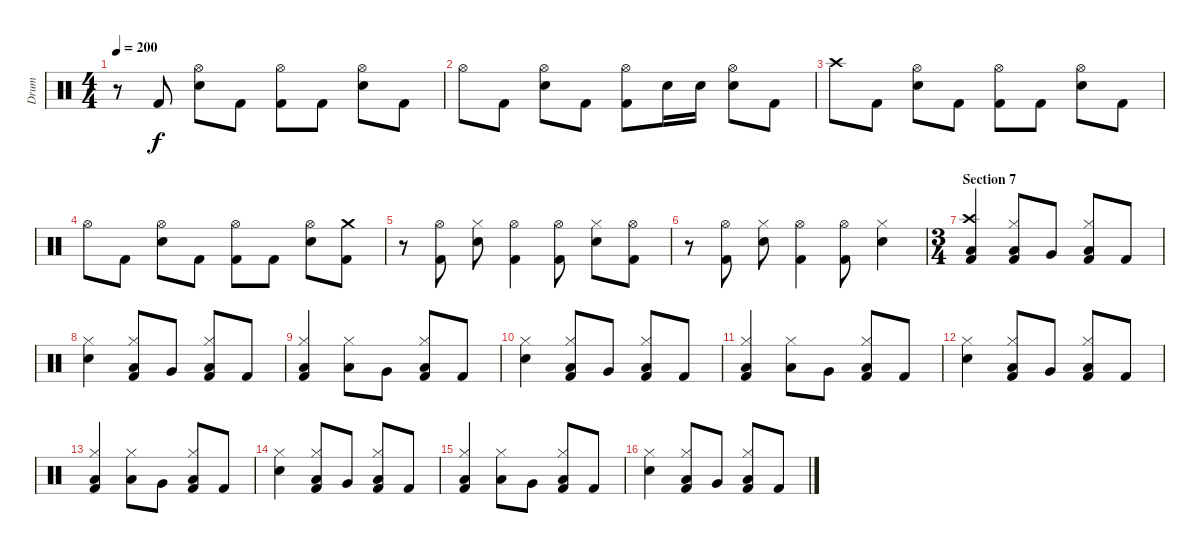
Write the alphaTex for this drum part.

\track ("Drum" "Drum") {instrument percussion}
\staff {score}
\articulation defaults
\ts (4 4)
\tempo 200
\clef neutral
\ks c
r.8{dy f} "Kick (hit) 2".8 ("Hi-Hat (open)" "Electric Snare (hit)").8 "Kick (hit) 2".8 ("Hi-Hat (open)" "Kick (hit) 2").8 "Kick (hit) 2".8 ("Hi-Hat (open)" "Electric Snare (hit)").8 "Kick (hit) 2".8 |
"Hi-Hat (open)".8 "Kick (hit) 2".8 ("Hi-Hat (open)" "Electric Snare (hit)").8 "Kick (hit) 2".8 ("Hi-Hat (open)" "Kick (hit) 2").8 "Electric Snare (hit)".16 "Electric Snare (hit)".16 ("Hi-Hat (open)" "Electric Snare (hit)").8 "Kick (hit) 2".8 |
"Crash high (hit)".8 "Kick (hit) 2".8 ("Hi-Hat (open)" "Electric Snare (hit)").8 "Kick (hit) 2".8 ("Hi-Hat (open)" "Kick (hit) 2").8 "Kick (hit) 2".8 ("Hi-Hat (open)" "Electric Snare (hit)").8 "Kick (hit) 2".8 |
"Hi-Hat (open)".8 "Kick (hit) 2".8 ("Hi-Hat (open)" "Electric Snare (hit)").8 "Kick (hit) 2".8 ("Hi-Hat (open)" "Kick (hit) 2").8 "Kick (hit) 2".8 ("Hi-Hat (open)" "Electric Snare (hit)").8 ("Crash medium (hit)" "Kick (hit) 2").8 |
r.8 ("Hi-Hat (open)" "Kick (hit) 2").8 ("Hi-Hat (closed)" "Electric Snare (hit)").8 ("Hi-Hat (open)" "Kick (hit) 2").4 ("Hi-Hat (open)" "Kick (hit) 2").8 ("Hi-Hat (closed)" "Electric Snare (hit)").8 ("Hi-Hat (open)" "Kick (hit) 2").8 |
r.8 ("Hi-Hat (open)" "Kick (hit) 2").8 ("Hi-Hat (closed)" "Electric Snare (hit)").8 ("Hi-Hat (open)" "Kick (hit) 2").4 ("Hi-Hat (open)" "Kick (hit) 2").8 ("Hi-Hat (closed)" "Electric Snare (hit)").4 |
\ts (3 4)
\section ("" "Section 7")
("Crash high (hit)" "Low Floor Tom (hit)" "Kick (hit) 2").4 ("Hi-Hat (closed)" "Low Floor Tom (hit)" "Kick (hit) 2").8 "Very Low Tom (hit)".8 ("Hi-Hat (closed)" "Low Floor Tom (hit)" "Kick (hit) 2").8 "Kick (hit) 2".8 |
("Hi-Hat (closed)" "Electric Snare (hit)").4 ("Hi-Hat (closed)" "Low Floor Tom (hit)" "Kick (hit) 2").8 "Very Low Tom (hit)".8 ("Hi-Hat (closed)" "Low Floor Tom (hit)" "Kick (hit) 2").8 "Kick (hit) 2".8 |
("Hi-Hat (closed)" "Low Floor Tom (hit)" "Kick (hit) 2").4 ("Hi-Hat (closed)" "Low Tom (hit)").8 "Very Low Tom (hit)".8 ("Hi-Hat (closed)" "Low Floor Tom (hit)" "Kick (hit) 2").8 "Kick (hit) 2".8 |
("Hi-Hat (closed)" "Electric Snare (hit)").4 ("Hi-Hat (closed)" "Low Tom (hit)" "Kick (hit) 2").8 "Very Low Tom (hit)".8 ("Hi-Hat (closed)" "Low Floor Tom (hit)" "Kick (hit) 2").8 "Kick (hit) 2".8 |
("Hi-Hat (closed)" "Low Floor Tom (hit)" "Kick (hit) 2").4 ("Hi-Hat (closed)" "Low Tom (hit)").8 "Very Low Tom (hit)".8 ("Hi-Hat (closed)" "Low Floor Tom (hit)" "Kick (hit) 2").8 "Kick (hit) 2".8 |
("Hi-Hat (closed)" "Electric Snare (hit)").4 ("Hi-Hat (closed)" "Low Tom (hit)" "Kick (hit) 2").8 "Very Low Tom (hit)".8 ("Hi-Hat (closed)" "Low Floor Tom (hit)" "Kick (hit) 2").8 "Kick (hit) 2".8 |
("Hi-Hat (closed)" "Low Floor Tom (hit)" "Kick (hit) 2").4 ("Hi-Hat (closed)" "Low Tom (hit)").8 "Very Low Tom (hit)".8 ("Hi-Hat (closed)" "Low Floor Tom (hit)" "Kick (hit) 2").8 "Kick (hit) 2".8 |
("Hi-Hat (closed)" "Electric Snare (hit)").4 ("Hi-Hat (closed)" "Low Tom (hit)" "Kick (hit) 2").8 "Very Low Tom (hit)".8 ("Hi-Hat (closed)" "Low Floor Tom (hit)" "Kick (hit) 2").8 "Kick (hit) 2".8 |
("Hi-Hat (closed)" "Low Floor Tom (hit)" "Kick (hit) 2").4 ("Hi-Hat (closed)" "Low Tom (hit)").8 "Very Low Tom (hit)".8 ("Hi-Hat (closed)" "Low Floor Tom (hit)" "Kick (hit) 2").8 "Kick (hit) 2".8 |
("Hi-Hat (closed)" "Electric Snare (hit)").4 ("Hi-Hat (closed)" "Low Tom (hit)" "Kick (hit) 2").8 "Very Low Tom (hit)".8 ("Hi-Hat (closed)" "Low Floor Tom (hit)" "Kick (hit) 2").8 "Kick (hit) 2".8
